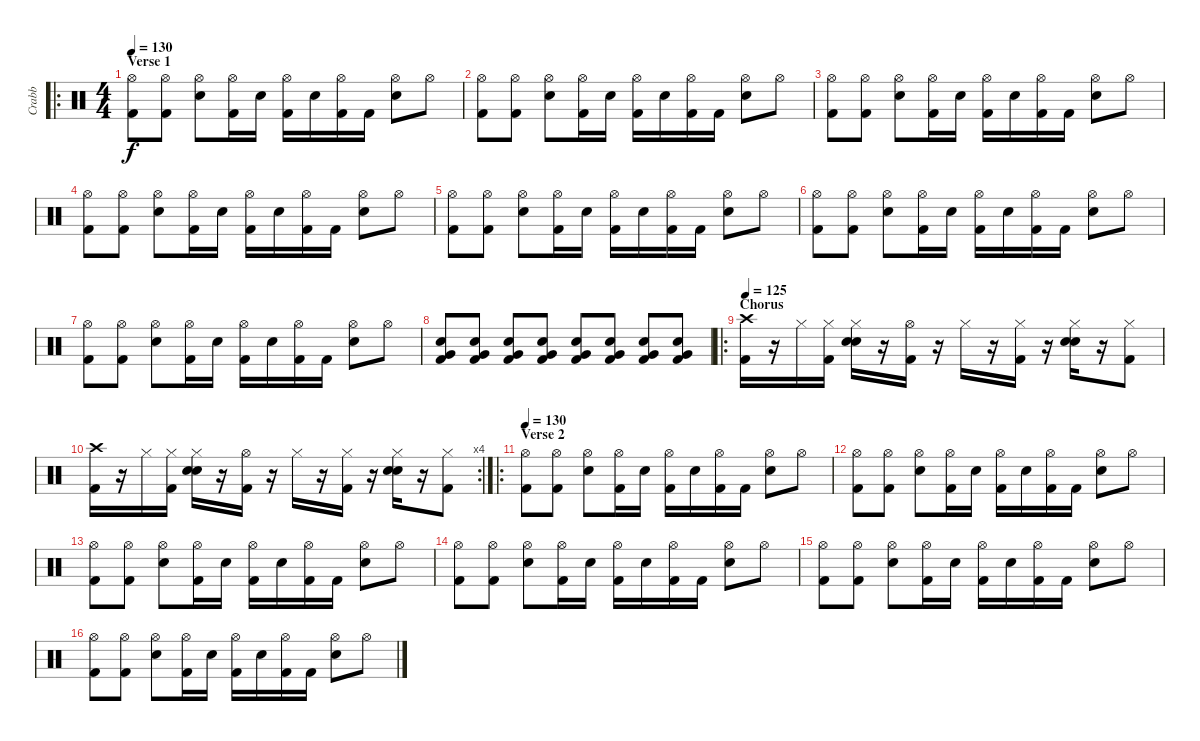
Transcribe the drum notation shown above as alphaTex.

\track ("Crabb" "Crabb") {instrument percussion}
\staff {score}
\articulation defaults
\ro
\ts (4 4)
\section ("" "Verse 1")
\tempo 130
\clef neutral
\ks c
("Hi-Hat (open)" "Kick (hit) 2").8{dy f} ("Hi-Hat (open)" "Kick (hit) 2").8 ("Hi-Hat (open)" "Electric Snare (hit)").8 ("Hi-Hat (open)" "Kick (hit) 2").16 "Electric Snare (hit)".16 ("Hi-Hat (open)" "Kick (hit) 2").16 "Electric Snare (hit)".16 ("Hi-Hat (open)" "Kick (hit) 2").16 "Kick (hit) 2".16 ("Hi-Hat (open)" "Electric Snare (hit)").8 "Hi-Hat (open)".8 |
("Hi-Hat (open)" "Kick (hit) 2").8 ("Hi-Hat (open)" "Kick (hit) 2").8 ("Hi-Hat (open)" "Electric Snare (hit)").8 ("Hi-Hat (open)" "Kick (hit) 2").16 "Electric Snare (hit)".16 ("Hi-Hat (open)" "Kick (hit) 2").16 "Electric Snare (hit)".16 ("Hi-Hat (open)" "Kick (hit) 2").16 "Kick (hit) 2".16 ("Hi-Hat (open)" "Electric Snare (hit)").8 "Hi-Hat (open)".8 |
("Hi-Hat (open)" "Kick (hit) 2").8 ("Hi-Hat (open)" "Kick (hit) 2").8 ("Hi-Hat (open)" "Electric Snare (hit)").8 ("Hi-Hat (open)" "Kick (hit) 2").16 "Electric Snare (hit)".16 ("Hi-Hat (open)" "Kick (hit) 2").16 "Electric Snare (hit)".16 ("Hi-Hat (open)" "Kick (hit) 2").16 "Kick (hit) 2".16 ("Hi-Hat (open)" "Electric Snare (hit)").8 "Hi-Hat (open)".8 |
("Hi-Hat (open)" "Kick (hit) 2").8 ("Hi-Hat (open)" "Kick (hit) 2").8 ("Hi-Hat (open)" "Electric Snare (hit)").8 ("Hi-Hat (open)" "Kick (hit) 2").16 "Electric Snare (hit)".16 ("Hi-Hat (open)" "Kick (hit) 2").16 "Electric Snare (hit)".16 ("Hi-Hat (open)" "Kick (hit) 2").16 "Kick (hit) 2".16 ("Hi-Hat (open)" "Electric Snare (hit)").8 "Hi-Hat (open)".8 |
("Hi-Hat (open)" "Kick (hit) 2").8 ("Hi-Hat (open)" "Kick (hit) 2").8 ("Hi-Hat (open)" "Electric Snare (hit)").8 ("Hi-Hat (open)" "Kick (hit) 2").16 "Electric Snare (hit)".16 ("Hi-Hat (open)" "Kick (hit) 2").16 "Electric Snare (hit)".16 ("Hi-Hat (open)" "Kick (hit) 2").16 "Kick (hit) 2".16 ("Hi-Hat (open)" "Electric Snare (hit)").8 "Hi-Hat (open)".8 |
("Hi-Hat (open)" "Kick (hit) 2").8 ("Hi-Hat (open)" "Kick (hit) 2").8 ("Hi-Hat (open)" "Electric Snare (hit)").8 ("Hi-Hat (open)" "Kick (hit) 2").16 "Electric Snare (hit)".16 ("Hi-Hat (open)" "Kick (hit) 2").16 "Electric Snare (hit)".16 ("Hi-Hat (open)" "Kick (hit) 2").16 "Kick (hit) 2".16 ("Hi-Hat (open)" "Electric Snare (hit)").8 "Hi-Hat (open)".8 |
("Hi-Hat (open)" "Kick (hit) 2").8 ("Hi-Hat (open)" "Kick (hit) 2").8 ("Hi-Hat (open)" "Electric Snare (hit)").8 ("Hi-Hat (open)" "Kick (hit) 2").16 "Electric Snare (hit)".16 ("Hi-Hat (open)" "Kick (hit) 2").16 "Electric Snare (hit)".16 ("Hi-Hat (open)" "Kick (hit) 2").16 "Kick (hit) 2".16 ("Hi-Hat (open)" "Electric Snare (hit)").8 "Hi-Hat (open)".8 |
("Very Low Tom (hit)" "Kick (hit) 2" "Electric Snare (hit)").8 ("Very Low Tom (hit)" "Kick (hit) 2" "Electric Snare (hit)").8 ("Very Low Tom (hit)" "Kick (hit) 2" "Electric Snare (hit)").8 ("Very Low Tom (hit)" "Kick (hit) 2" "Electric Snare (hit)").8 ("Very Low Tom (hit)" "Kick (hit) 2" "Electric Snare (hit)").8 ("Very Low Tom (hit)" "Kick (hit) 2" "Electric Snare (hit)").8 ("Very Low Tom (hit)" "Kick (hit) 2" "Electric Snare (hit)").8 ("Very Low Tom (hit)" "Kick (hit) 2" "Electric Snare (hit)").8 |
\ro
\section ("" "Chorus")
\tempo 125
("Kick (hit) 2" "Crash high (hit)").16 r.16 "Hi-Hat (closed)".16 ("Hi-Hat (closed)" "Kick (hit) 2").16 ("Hi-Hat (closed)" "Snare (hit) 2" "Electric Snare (hit)").16 r.16 ("Hi-Hat (open)" "Kick (hit) 2").16 r.16 "Hi-Hat (closed)".16 r.16 ("Hi-Hat (closed)" "Kick (hit) 2").16 r.16 ("Hi-Hat (closed)" "Snare (hit) 2" "Electric Snare (hit)").16 r.16 ("Hi-Hat (closed)" "Kick (hit) 2").8 |
\rc 4
("Kick (hit) 2" "Crash high (hit)").16 r.16 "Hi-Hat (closed)".16 ("Hi-Hat (closed)" "Kick (hit) 2").16 ("Hi-Hat (closed)" "Snare (hit) 2" "Electric Snare (hit)").16 r.16 ("Hi-Hat (open)" "Kick (hit) 2").16 r.16 "Hi-Hat (closed)".16 r.16 ("Hi-Hat (closed)" "Kick (hit) 2").16 r.16 ("Hi-Hat (closed)" "Snare (hit) 2" "Electric Snare (hit)").16 r.16 ("Hi-Hat (closed)" "Kick (hit) 2").8 |
\ro
\section ("" "Verse 2")
\tempo 130
("Hi-Hat (open)" "Kick (hit) 2").8 ("Hi-Hat (open)" "Kick (hit) 2").8 ("Hi-Hat (open)" "Electric Snare (hit)").8 ("Hi-Hat (open)" "Kick (hit) 2").16 "Electric Snare (hit)".16 ("Hi-Hat (open)" "Kick (hit) 2").16 "Electric Snare (hit)".16 ("Hi-Hat (open)" "Kick (hit) 2").16 "Kick (hit) 2".16 ("Hi-Hat (open)" "Electric Snare (hit)").8 "Hi-Hat (open)".8 |
("Hi-Hat (open)" "Kick (hit) 2").8 ("Hi-Hat (open)" "Kick (hit) 2").8 ("Hi-Hat (open)" "Electric Snare (hit)").8 ("Hi-Hat (open)" "Kick (hit) 2").16 "Electric Snare (hit)".16 ("Hi-Hat (open)" "Kick (hit) 2").16 "Electric Snare (hit)".16 ("Hi-Hat (open)" "Kick (hit) 2").16 "Kick (hit) 2".16 ("Hi-Hat (open)" "Electric Snare (hit)").8 "Hi-Hat (open)".8 |
("Hi-Hat (open)" "Kick (hit) 2").8 ("Hi-Hat (open)" "Kick (hit) 2").8 ("Hi-Hat (open)" "Electric Snare (hit)").8 ("Hi-Hat (open)" "Kick (hit) 2").16 "Electric Snare (hit)".16 ("Hi-Hat (open)" "Kick (hit) 2").16 "Electric Snare (hit)".16 ("Hi-Hat (open)" "Kick (hit) 2").16 "Kick (hit) 2".16 ("Hi-Hat (open)" "Electric Snare (hit)").8 "Hi-Hat (open)".8 |
("Hi-Hat (open)" "Kick (hit) 2").8 ("Hi-Hat (open)" "Kick (hit) 2").8 ("Hi-Hat (open)" "Electric Snare (hit)").8 ("Hi-Hat (open)" "Kick (hit) 2").16 "Electric Snare (hit)".16 ("Hi-Hat (open)" "Kick (hit) 2").16 "Electric Snare (hit)".16 ("Hi-Hat (open)" "Kick (hit) 2").16 "Kick (hit) 2".16 ("Hi-Hat (open)" "Electric Snare (hit)").8 "Hi-Hat (open)".8 |
("Hi-Hat (open)" "Kick (hit) 2").8 ("Hi-Hat (open)" "Kick (hit) 2").8 ("Hi-Hat (open)" "Electric Snare (hit)").8 ("Hi-Hat (open)" "Kick (hit) 2").16 "Electric Snare (hit)".16 ("Hi-Hat (open)" "Kick (hit) 2").16 "Electric Snare (hit)".16 ("Hi-Hat (open)" "Kick (hit) 2").16 "Kick (hit) 2".16 ("Hi-Hat (open)" "Electric Snare (hit)").8 "Hi-Hat (open)".8 |
("Hi-Hat (open)" "Kick (hit) 2").8 ("Hi-Hat (open)" "Kick (hit) 2").8 ("Hi-Hat (open)" "Electric Snare (hit)").8 ("Hi-Hat (open)" "Kick (hit) 2").16 "Electric Snare (hit)".16 ("Hi-Hat (open)" "Kick (hit) 2").16 "Electric Snare (hit)".16 ("Hi-Hat (open)" "Kick (hit) 2").16 "Kick (hit) 2".16 ("Hi-Hat (open)" "Electric Snare (hit)").8 "Hi-Hat (open)".8
